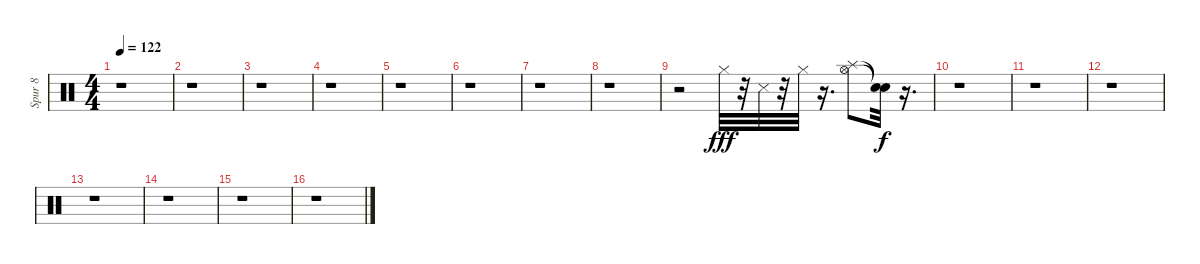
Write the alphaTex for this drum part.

\track ("Spur 8" "Spur 8") {instrument percussion}
\staff {score}
\articulation defaults
\ts (4 4)
\tempo 122
\clef neutral
\ks c
r.1{dy fff} |
r.1 |
r.1 |
r.1 |
r.1 |
r.1 |
r.1 |
r.1 |
r.2 "Hi-Hat (closed)".32 r.32 "Snare (side stick) 3".32 r.32 "Hi-Hat (closed)".32 r.16{d} ("Splash (hit)" "Hi-Hat (open)").8 ("Snare (hit)"{t} "Snare (hit)"{t}).32{dy f} r.16{d} |
r.1 |
r.1 |
r.1 |
r.1 |
r.1 |
r.1 |
r.1
